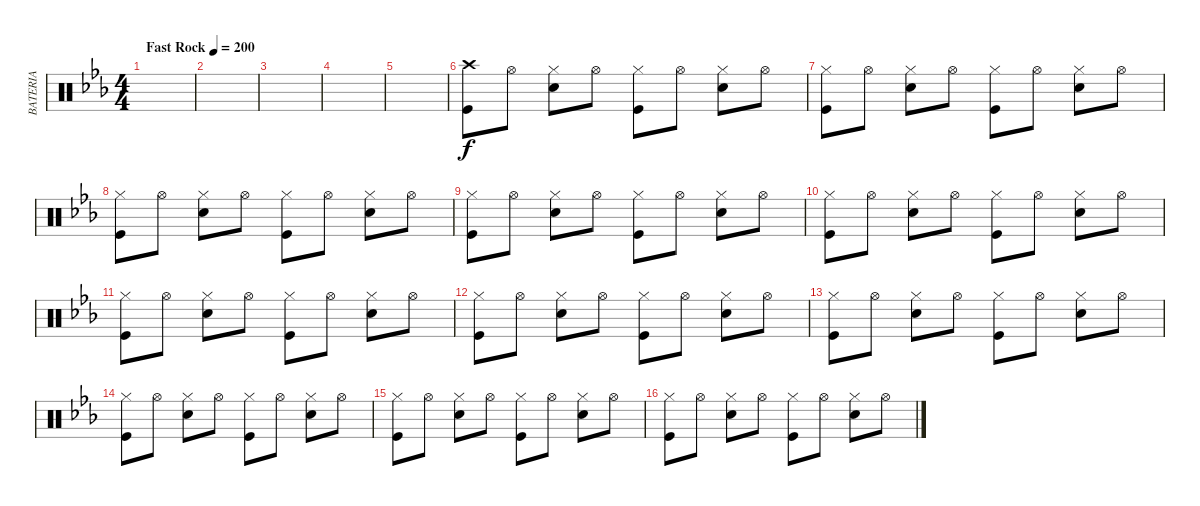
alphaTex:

\track ("BATERIA" "BATERIA") {instrument percussion}
\staff {score}
\articulation defaults
\ts (4 4)
\tempo (200 "Fast Rock")
\clef neutral
\ks cminor
|
|
|
|
|
("Kick (hit)" "Crash high (hit)").8 "Hi-Hat (open)".8 ("Hi-Hat (closed)" "Snare (hit) 2").8 "Hi-Hat (open)".8 ("Kick (hit)" "Hi-Hat (closed)").8 "Hi-Hat (open)".8 ("Hi-Hat (closed)" "Snare (hit) 2").8 "Hi-Hat (open)".8 |
("Kick (hit)" "Hi-Hat (closed)").8 "Hi-Hat (open)".8 ("Hi-Hat (closed)" "Snare (hit) 2").8 "Hi-Hat (open)".8 ("Kick (hit)" "Hi-Hat (closed)").8 "Hi-Hat (open)".8 ("Hi-Hat (closed)" "Snare (hit) 2").8 "Hi-Hat (open)".8 |
("Kick (hit)" "Hi-Hat (closed)").8 "Hi-Hat (open)".8 ("Hi-Hat (closed)" "Snare (hit) 2").8 "Hi-Hat (open)".8 ("Kick (hit)" "Hi-Hat (closed)").8 "Hi-Hat (open)".8 ("Hi-Hat (closed)" "Snare (hit) 2").8 "Hi-Hat (open)".8 |
("Kick (hit)" "Hi-Hat (closed)").8 "Hi-Hat (open)".8 ("Hi-Hat (closed)" "Snare (hit) 2").8 "Hi-Hat (open)".8 ("Kick (hit)" "Hi-Hat (closed)").8 "Hi-Hat (open)".8 ("Hi-Hat (closed)" "Snare (hit) 2").8 "Hi-Hat (open)".8 |
("Kick (hit)" "Hi-Hat (closed)").8 "Hi-Hat (open)".8 ("Hi-Hat (closed)" "Snare (hit) 2").8 "Hi-Hat (open)".8 ("Kick (hit)" "Hi-Hat (closed)").8 "Hi-Hat (open)".8 ("Hi-Hat (closed)" "Snare (hit) 2").8 "Hi-Hat (open)".8 |
("Kick (hit)" "Hi-Hat (closed)").8 "Hi-Hat (open)".8 ("Hi-Hat (closed)" "Snare (hit) 2").8 "Hi-Hat (open)".8 ("Kick (hit)" "Hi-Hat (closed)").8 "Hi-Hat (open)".8 ("Hi-Hat (closed)" "Snare (hit) 2").8 "Hi-Hat (open)".8 |
("Kick (hit)" "Hi-Hat (closed)").8 "Hi-Hat (open)".8 ("Hi-Hat (closed)" "Snare (hit) 2").8 "Hi-Hat (open)".8 ("Kick (hit)" "Hi-Hat (closed)").8 "Hi-Hat (open)".8 ("Hi-Hat (closed)" "Snare (hit) 2").8 "Hi-Hat (open)".8 |
("Kick (hit)" "Hi-Hat (closed)").8 "Hi-Hat (open)".8 ("Hi-Hat (closed)" "Snare (hit) 2").8 "Hi-Hat (open)".8 ("Kick (hit)" "Hi-Hat (closed)").8 "Hi-Hat (open)".8 ("Hi-Hat (closed)" "Snare (hit) 2").8 "Hi-Hat (open)".8 |
("Kick (hit)" "Hi-Hat (closed)").8 "Hi-Hat (open)".8 ("Hi-Hat (closed)" "Snare (hit) 2").8 "Hi-Hat (open)".8 ("Kick (hit)" "Hi-Hat (closed)").8 "Hi-Hat (open)".8 ("Hi-Hat (closed)" "Snare (hit) 2").8 "Hi-Hat (open)".8 |
("Kick (hit)" "Hi-Hat (closed)").8 "Hi-Hat (open)".8 ("Hi-Hat (closed)" "Snare (hit) 2").8 "Hi-Hat (open)".8 ("Kick (hit)" "Hi-Hat (closed)").8 "Hi-Hat (open)".8 ("Hi-Hat (closed)" "Snare (hit) 2").8 "Hi-Hat (open)".8 |
("Kick (hit)" "Hi-Hat (closed)").8 "Hi-Hat (open)".8 ("Hi-Hat (closed)" "Snare (hit) 2").8 "Hi-Hat (open)".8 ("Kick (hit)" "Hi-Hat (closed)").8 "Hi-Hat (open)".8 ("Hi-Hat (closed)" "Snare (hit) 2").8 "Hi-Hat (open)".8
